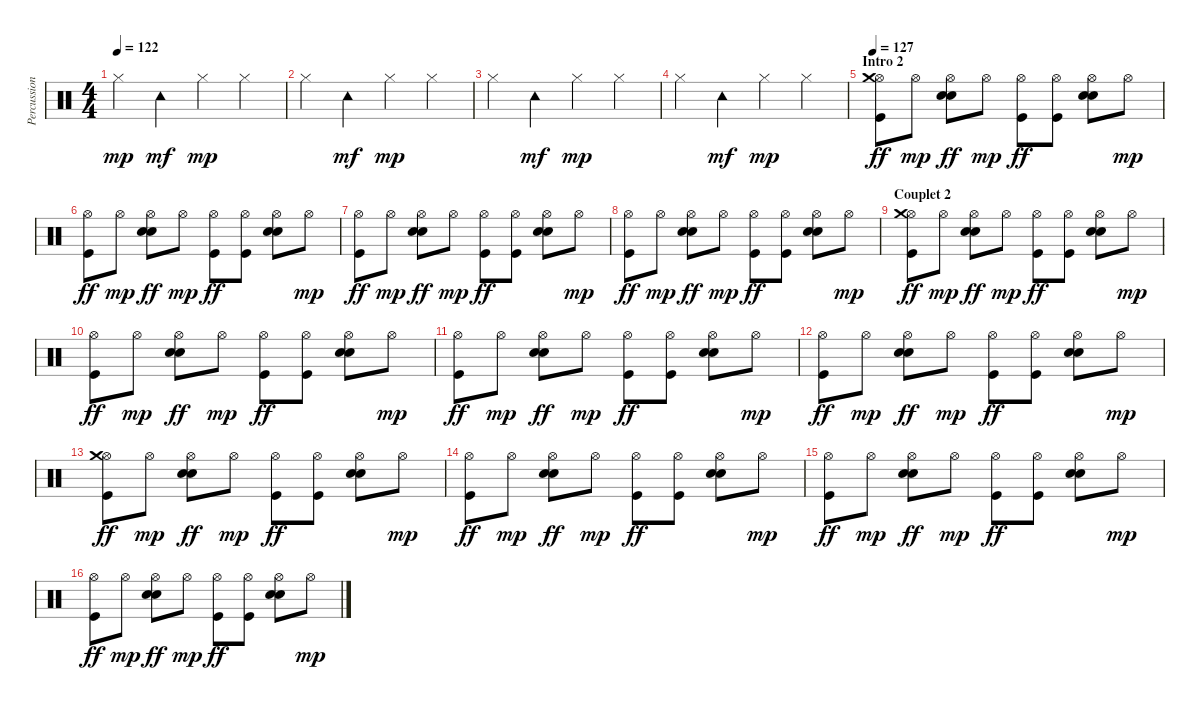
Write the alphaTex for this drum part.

\track ("Percussions" "Percussion") {instrument percussion}
\staff {score}
\articulation defaults
\ts (4 4)
\tempo 122
\clef neutral
\ks c "Hi-Hat (closed)".4{dy mp} "Tambourine (hit)".4{dy mf} "Hi-Hat (closed)".4{dy mp} "Hi-Hat (closed)".4
|
"Hi-Hat (closed)".4 "Tambourine (hit)".4{dy mf} "Hi-Hat (closed)".4{dy mp} "Hi-Hat (closed)".4 |
"Hi-Hat (closed)".4 "Tambourine (hit)".4{dy mf} "Hi-Hat (closed)".4{dy mp} "Hi-Hat (closed)".4 |
"Hi-Hat (closed)".4 "Tambourine (hit)".4{dy mf} "Hi-Hat (closed)".4{dy mp} "Hi-Hat (closed)".4 |
\section ("" "Intro 2")
\tempo 127
("Hi-Hat (open)" "Crash medium (hit)" "Kick (hit)").8{dy ff} "Hi-Hat (open)".8{dy mp} ("Hi-Hat (open)" "Snare (hit) 2" "Electric Snare (hit)").8{dy ff} "Hi-Hat (open)".8{dy mp} ("Hi-Hat (open)" "Kick (hit)").8{dy ff} ("Hi-Hat (open)" "Kick (hit)").8 ("Hi-Hat (open)" "Snare (hit) 2" "Electric Snare (hit)").8 "Hi-Hat (open)".8{dy mp} |
("Hi-Hat (open)" "Kick (hit)").8{dy ff} "Hi-Hat (open)".8{dy mp} ("Hi-Hat (open)" "Snare (hit) 2" "Electric Snare (hit)").8{dy ff} "Hi-Hat (open)".8{dy mp} ("Hi-Hat (open)" "Kick (hit)").8{dy ff} ("Hi-Hat (open)" "Kick (hit)").8 ("Hi-Hat (open)" "Snare (hit) 2" "Electric Snare (hit)").8 "Hi-Hat (open)".8{dy mp} |
("Hi-Hat (open)" "Kick (hit)").8{dy ff} "Hi-Hat (open)".8{dy mp} ("Hi-Hat (open)" "Snare (hit) 2" "Electric Snare (hit)").8{dy ff} "Hi-Hat (open)".8{dy mp} ("Hi-Hat (open)" "Kick (hit)").8{dy ff} ("Hi-Hat (open)" "Kick (hit)").8 ("Hi-Hat (open)" "Snare (hit) 2" "Electric Snare (hit)").8 "Hi-Hat (open)".8{dy mp} |
("Hi-Hat (open)" "Kick (hit)").8{dy ff} "Hi-Hat (open)".8{dy mp} ("Hi-Hat (open)" "Snare (hit) 2" "Electric Snare (hit)").8{dy ff} "Hi-Hat (open)".8{dy mp} ("Hi-Hat (open)" "Kick (hit)").8{dy ff} ("Hi-Hat (open)" "Kick (hit)").8 ("Hi-Hat (open)" "Snare (hit) 2" "Electric Snare (hit)").8 "Hi-Hat (open)".8{dy mp} |
\section ("" "Couplet 2")
("Hi-Hat (open)" "Crash medium (hit)" "Kick (hit)").8{dy ff} "Hi-Hat (open)".8{dy mp} ("Hi-Hat (open)" "Snare (hit) 2" "Electric Snare (hit)").8{dy ff} "Hi-Hat (open)".8{dy mp} ("Hi-Hat (open)" "Kick (hit)").8{dy ff} ("Hi-Hat (open)" "Kick (hit)").8 ("Hi-Hat (open)" "Snare (hit) 2" "Electric Snare (hit)").8 "Hi-Hat (open)".8{dy mp} |
("Hi-Hat (open)" "Kick (hit)").8{dy ff} "Hi-Hat (open)".8{dy mp} ("Hi-Hat (open)" "Snare (hit) 2" "Electric Snare (hit)").8{dy ff} "Hi-Hat (open)".8{dy mp} ("Hi-Hat (open)" "Kick (hit)").8{dy ff} ("Hi-Hat (open)" "Kick (hit)").8 ("Hi-Hat (open)" "Snare (hit) 2" "Electric Snare (hit)").8 "Hi-Hat (open)".8{dy mp} |
("Hi-Hat (open)" "Kick (hit)").8{dy ff} "Hi-Hat (open)".8{dy mp} ("Hi-Hat (open)" "Snare (hit) 2" "Electric Snare (hit)").8{dy ff} "Hi-Hat (open)".8{dy mp} ("Hi-Hat (open)" "Kick (hit)").8{dy ff} ("Hi-Hat (open)" "Kick (hit)").8 ("Hi-Hat (open)" "Snare (hit) 2" "Electric Snare (hit)").8 "Hi-Hat (open)".8{dy mp} |
("Hi-Hat (open)" "Kick (hit)").8{dy ff} "Hi-Hat (open)".8{dy mp} ("Hi-Hat (open)" "Snare (hit) 2" "Electric Snare (hit)").8{dy ff} "Hi-Hat (open)".8{dy mp} ("Hi-Hat (open)" "Kick (hit)").8{dy ff} ("Hi-Hat (open)" "Kick (hit)").8 ("Hi-Hat (open)" "Snare (hit) 2" "Electric Snare (hit)").8 "Hi-Hat (open)".8{dy mp} |
("Hi-Hat (open)" "Crash medium (hit)" "Kick (hit)").8{dy ff} "Hi-Hat (open)".8{dy mp} ("Hi-Hat (open)" "Snare (hit) 2" "Electric Snare (hit)").8{dy ff} "Hi-Hat (open)".8{dy mp} ("Hi-Hat (open)" "Kick (hit)").8{dy ff} ("Hi-Hat (open)" "Kick (hit)").8 ("Hi-Hat (open)" "Snare (hit) 2" "Electric Snare (hit)").8 "Hi-Hat (open)".8{dy mp} |
("Hi-Hat (open)" "Kick (hit)").8{dy ff} "Hi-Hat (open)".8{dy mp} ("Hi-Hat (open)" "Snare (hit) 2" "Electric Snare (hit)").8{dy ff} "Hi-Hat (open)".8{dy mp} ("Hi-Hat (open)" "Kick (hit)").8{dy ff} ("Hi-Hat (open)" "Kick (hit)").8 ("Hi-Hat (open)" "Snare (hit) 2" "Electric Snare (hit)").8 "Hi-Hat (open)".8{dy mp} |
("Hi-Hat (open)" "Kick (hit)").8{dy ff} "Hi-Hat (open)".8{dy mp} ("Hi-Hat (open)" "Snare (hit) 2" "Electric Snare (hit)").8{dy ff} "Hi-Hat (open)".8{dy mp} ("Hi-Hat (open)" "Kick (hit)").8{dy ff} ("Hi-Hat (open)" "Kick (hit)").8 ("Hi-Hat (open)" "Snare (hit) 2" "Electric Snare (hit)").8 "Hi-Hat (open)".8{dy mp} |
("Hi-Hat (open)" "Kick (hit)").8{dy ff} "Hi-Hat (open)".8{dy mp} ("Hi-Hat (open)" "Snare (hit) 2" "Electric Snare (hit)").8{dy ff} "Hi-Hat (open)".8{dy mp} ("Hi-Hat (open)" "Kick (hit)").8{dy ff} ("Hi-Hat (open)" "Kick (hit)").8 ("Hi-Hat (open)" "Snare (hit) 2" "Electric Snare (hit)").8 "Hi-Hat (open)".8{dy mp}
